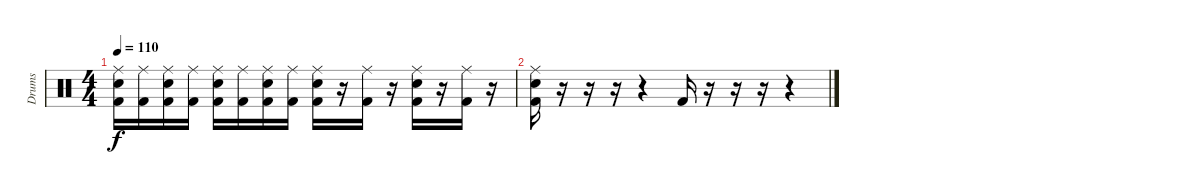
\track ("Drums" "Drums") {instrument percussion}
\staff {score}
\articulation defaults
\ts (4 4)
\tempo 110
\clef neutral
\ks c
("Ride (middle)" "Electric Snare (hit)" "Kick (hit) 2").16{dy f} ("Ride (middle)" "Kick (hit) 2").16 ("Ride (middle)" "Electric Snare (hit)" "Kick (hit) 2").16 ("Ride (middle)" "Kick (hit) 2").16 ("Ride (middle)" "Electric Snare (hit)" "Kick (hit) 2").16 ("Ride (middle)" "Kick (hit) 2").16 ("Ride (middle)" "Electric Snare (hit)" "Kick (hit) 2").16 ("Ride (middle)" "Kick (hit) 2").16 ("Ride (middle)" "Electric Snare (hit)" "Kick (hit) 2").16 r.16 ("Ride (middle)" "Kick (hit) 2").16 r.16 ("Ride (middle)" "Electric Snare (hit)" "Kick (hit) 2").16 r.16 ("Ride (middle)" "Kick (hit) 2").16 r.16 |
("Ride (middle)" "Electric Snare (hit)" "Kick (hit) 2").16 r.16 r.16 r.16 r.4 "Kick (hit) 2".16 r.16 r.16 r.16 r.4
